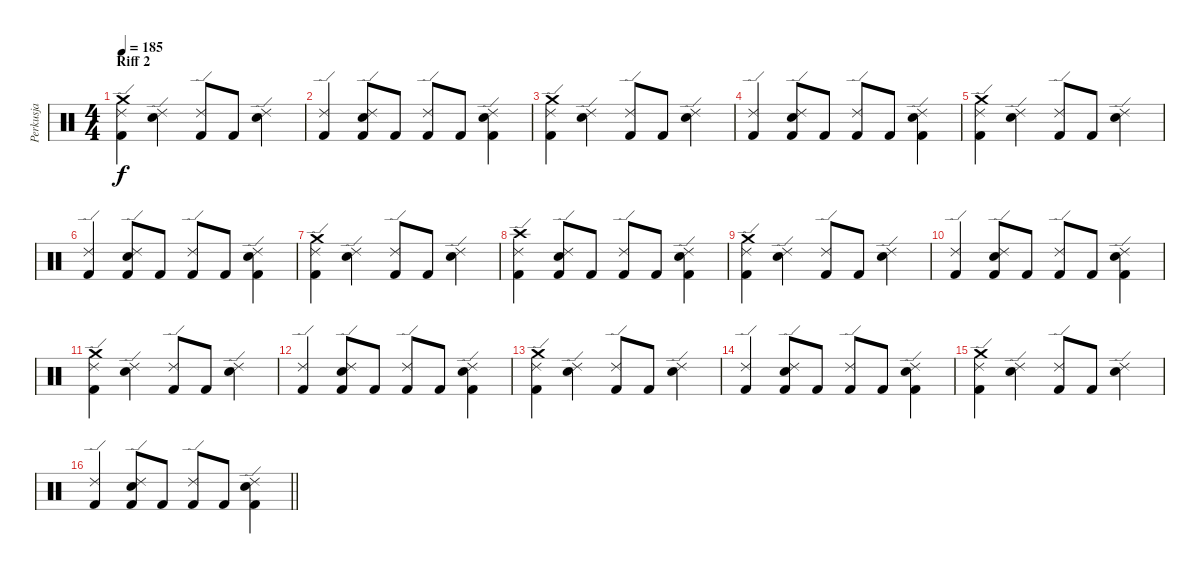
\track ("Perkusja" "Perkusja") {instrument percussion}
\staff {score}
\articulation defaults
\ts (4 4)
\section ("" "Riff 2")
\tempo 185
\clef neutral
\ks c
("Crash medium (hit)" "Ride (edge) 2" "Kick (hit) 2").4{dy f} ("Electric Snare (hit)" "Ride (edge) 2").4 ("Ride (edge) 2" "Kick (hit) 2").8 "Kick (hit) 2".8 ("Electric Snare (hit)" "Ride (edge) 2").4 |
("Ride (edge) 2" "Kick (hit) 2").4 ("Electric Snare (hit)" "Ride (edge) 2" "Kick (hit) 2").8 "Kick (hit) 2".8 ("Ride (edge) 2" "Kick (hit) 2").8 "Kick (hit) 2".8 ("Electric Snare (hit)" "Ride (edge) 2" "Kick (hit) 2").4 |
("Crash medium (hit)" "Ride (edge) 2" "Kick (hit) 2").4 ("Electric Snare (hit)" "Ride (edge) 2").4 ("Ride (edge) 2" "Kick (hit) 2").8 "Kick (hit) 2".8 ("Electric Snare (hit)" "Ride (edge) 2").4 |
("Ride (edge) 2" "Kick (hit) 2").4 ("Electric Snare (hit)" "Ride (edge) 2" "Kick (hit) 2").8 "Kick (hit) 2".8 ("Ride (edge) 2" "Kick (hit) 2").8 "Kick (hit) 2".8 ("Electric Snare (hit)" "Ride (edge) 2" "Kick (hit) 2").4 |
("Crash medium (hit)" "Ride (edge) 2" "Kick (hit) 2").4 ("Electric Snare (hit)" "Ride (edge) 2").4 ("Ride (edge) 2" "Kick (hit) 2").8 "Kick (hit) 2".8 ("Electric Snare (hit)" "Ride (edge) 2").4 |
("Ride (edge) 2" "Kick (hit) 2").4 ("Electric Snare (hit)" "Ride (edge) 2" "Kick (hit) 2").8 "Kick (hit) 2".8 ("Ride (edge) 2" "Kick (hit) 2").8 "Kick (hit) 2".8 ("Electric Snare (hit)" "Ride (edge) 2" "Kick (hit) 2").4 |
("Crash medium (hit)" "Ride (edge) 2" "Kick (hit) 2").4 ("Electric Snare (hit)" "Ride (edge) 2").4 ("Ride (edge) 2" "Kick (hit) 2").8 "Kick (hit) 2".8 ("Electric Snare (hit)" "Ride (edge) 2").4 |
("Crash high (hit)" "Ride (edge) 2" "Kick (hit) 2").4 ("Electric Snare (hit)" "Ride (edge) 2" "Kick (hit) 2").8 "Kick (hit) 2".8 ("Ride (edge) 2" "Kick (hit) 2").8 "Kick (hit) 2".8 ("Electric Snare (hit)" "Ride (edge) 2" "Kick (hit) 2").4 |
("Crash medium (hit)" "Ride (edge) 2" "Kick (hit) 2").4 ("Electric Snare (hit)" "Ride (edge) 2").4 ("Ride (edge) 2" "Kick (hit) 2").8 "Kick (hit) 2".8 ("Electric Snare (hit)" "Ride (edge) 2").4 |
("Ride (edge) 2" "Kick (hit) 2").4 ("Electric Snare (hit)" "Ride (edge) 2" "Kick (hit) 2").8 "Kick (hit) 2".8 ("Ride (edge) 2" "Kick (hit) 2").8 "Kick (hit) 2".8 ("Electric Snare (hit)" "Ride (edge) 2" "Kick (hit) 2").4 |
("Crash medium (hit)" "Ride (edge) 2" "Kick (hit) 2").4 ("Electric Snare (hit)" "Ride (edge) 2").4 ("Ride (edge) 2" "Kick (hit) 2").8 "Kick (hit) 2".8 ("Electric Snare (hit)" "Ride (edge) 2").4 |
("Ride (edge) 2" "Kick (hit) 2").4 ("Electric Snare (hit)" "Ride (edge) 2" "Kick (hit) 2").8 "Kick (hit) 2".8 ("Ride (edge) 2" "Kick (hit) 2").8 "Kick (hit) 2".8 ("Electric Snare (hit)" "Ride (edge) 2" "Kick (hit) 2").4 |
("Crash medium (hit)" "Ride (edge) 2" "Kick (hit) 2").4 ("Electric Snare (hit)" "Ride (edge) 2").4 ("Ride (edge) 2" "Kick (hit) 2").8 "Kick (hit) 2".8 ("Electric Snare (hit)" "Ride (edge) 2").4 |
("Ride (edge) 2" "Kick (hit) 2").4 ("Electric Snare (hit)" "Ride (edge) 2" "Kick (hit) 2").8 "Kick (hit) 2".8 ("Ride (edge) 2" "Kick (hit) 2").8 "Kick (hit) 2".8 ("Electric Snare (hit)" "Ride (edge) 2" "Kick (hit) 2").4 |
("Crash medium (hit)" "Ride (edge) 2" "Kick (hit) 2").4 ("Electric Snare (hit)" "Ride (edge) 2").4 ("Ride (edge) 2" "Kick (hit) 2").8 "Kick (hit) 2".8 ("Electric Snare (hit)" "Ride (edge) 2").4 |
\barLineRight lightlight
("Ride (edge) 2" "Kick (hit) 2").4 ("Electric Snare (hit)" "Ride (edge) 2" "Kick (hit) 2").8 "Kick (hit) 2".8 ("Ride (edge) 2" "Kick (hit) 2").8 "Kick (hit) 2".8 ("Electric Snare (hit)" "Ride (edge) 2" "Kick (hit) 2").4
